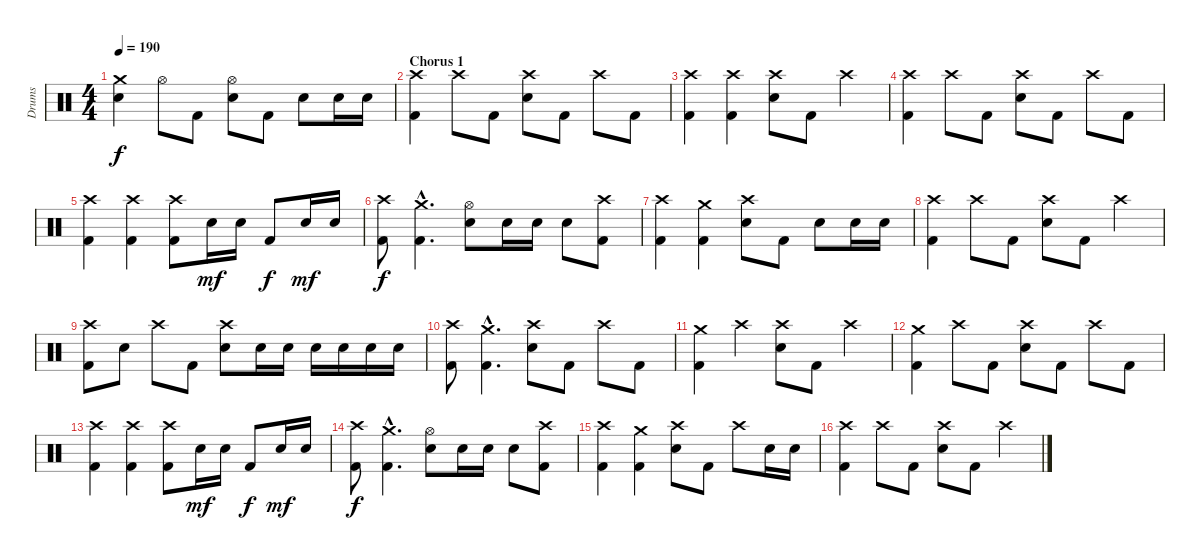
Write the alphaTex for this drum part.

\track ("Drums" "Drums") {instrument percussion}
\staff {score}
\articulation defaults
\ts (4 4)
\tempo 190
\clef neutral
\ks c
("Crash medium (hit)" "Electric Snare (hit)").4{dy f} "Hi-Hat (open)".8 "Kick (hit) 2".8 ("Hi-Hat (open)" "Electric Snare (hit)").8 "Kick (hit) 2".8 "Electric Snare (hit)".8 "Electric Snare (hit)".16 "Electric Snare (hit)".16 |
\section ("" "Chorus 1")
("Crash high (hit)" "Kick (hit) 2").4 "Crash high (hit)".8 "Kick (hit) 2".8 ("Crash high (hit)" "Electric Snare (hit)").8 "Kick (hit) 2".8 "Crash high (hit)".8 "Kick (hit) 2".8 |
("Crash high (hit)" "Kick (hit) 2").4 ("Crash high (hit)" "Kick (hit) 2").4 ("Crash high (hit)" "Electric Snare (hit)").8 "Kick (hit) 2".8 "Crash high (hit)".4 |
("Crash high (hit)" "Kick (hit) 2").4 "Crash high (hit)".8 "Kick (hit) 2".8 ("Crash high (hit)" "Electric Snare (hit)").8 "Kick (hit) 2".8 "Crash high (hit)".8 "Kick (hit) 2".8 |
("Crash high (hit)" "Kick (hit) 2").4 ("Crash high (hit)" "Kick (hit) 2").4 ("Crash high (hit)" "Kick (hit) 2").8 "Electric Snare (hit)".16{dy mf} "Electric Snare (hit)".16 "Kick (hit) 2".8{dy f} "Electric Snare (hit)".16{dy mf} "Electric Snare (hit)".16 |
("Crash high (hit)" "Kick (hit) 2").8{dy f} ("Crash medium (hit)"{hac} "Kick (hit) 2"{hac}).4{d} ("Hi-Hat (open)" "Electric Snare (hit)").8 "Electric Snare (hit)".16 "Electric Snare (hit)".16 "Electric Snare (hit)".8 ("Crash high (hit)" "Kick (hit) 2").8 |
("Crash high (hit)" "Kick (hit) 2").4 ("Crash medium (hit)" "Kick (hit) 2").4 ("Crash high (hit)" "Electric Snare (hit)").8 "Kick (hit) 2".8 "Electric Snare (hit)".8 "Electric Snare (hit)".16 "Electric Snare (hit)".16 |
("Crash high (hit)" "Kick (hit) 2").4 "Crash high (hit)".8 "Kick (hit) 2".8 ("Crash high (hit)" "Electric Snare (hit)").8 "Kick (hit) 2".8 "Crash high (hit)".4 |
("Crash high (hit)" "Kick (hit) 2").8 "Electric Snare (hit)".8 "Crash high (hit)".8 "Kick (hit) 2".8 ("Crash high (hit)" "Electric Snare (hit)").8 "Electric Snare (hit)".16 "Electric Snare (hit)".16 "Electric Snare (hit)".16 "Electric Snare (hit)".16 "Electric Snare (hit)".16 "Electric Snare (hit)".16 |
("Crash high (hit)" "Kick (hit) 2").8 ("Crash medium (hit)"{hac} "Kick (hit) 2"{hac}).4{d} ("Crash high (hit)" "Electric Snare (hit)").8 "Kick (hit) 2".8 "Crash high (hit)".8 "Kick (hit) 2".8 |
("Crash medium (hit)" "Kick (hit) 2").4 "Crash high (hit)".4 ("Crash high (hit)" "Electric Snare (hit)").8 "Kick (hit) 2".8 "Crash high (hit)".4 |
("Crash medium (hit)" "Kick (hit) 2").4 "Crash high (hit)".8 "Kick (hit) 2".8 ("Crash high (hit)" "Electric Snare (hit)").8 "Kick (hit) 2".8 "Crash high (hit)".8 "Kick (hit) 2".8 |
("Crash high (hit)" "Kick (hit) 2").4 ("Crash high (hit)" "Kick (hit) 2").4 ("Crash high (hit)" "Kick (hit) 2").8 "Electric Snare (hit)".16{dy mf} "Electric Snare (hit)".16 "Kick (hit) 2".8{dy f} "Electric Snare (hit)".16{dy mf} "Electric Snare (hit)".16 |
("Crash high (hit)" "Kick (hit) 2").8{dy f} ("Crash medium (hit)"{hac} "Kick (hit) 2"{hac}).4{d} ("Hi-Hat (open)" "Electric Snare (hit)").8 "Electric Snare (hit)".16 "Electric Snare (hit)".16 "Electric Snare (hit)".8 ("Crash high (hit)" "Kick (hit) 2").8 |
("Crash high (hit)" "Kick (hit) 2").4 ("Crash medium (hit)" "Kick (hit) 2").4 ("Crash high (hit)" "Electric Snare (hit)").8 "Kick (hit) 2".8 "Crash high (hit)".8 "Electric Snare (hit)".16 "Electric Snare (hit)".16 |
("Crash high (hit)" "Kick (hit) 2").4 "Crash high (hit)".8 "Kick (hit) 2".8 ("Crash high (hit)" "Electric Snare (hit)").8 "Kick (hit) 2".8 "Crash high (hit)".4
